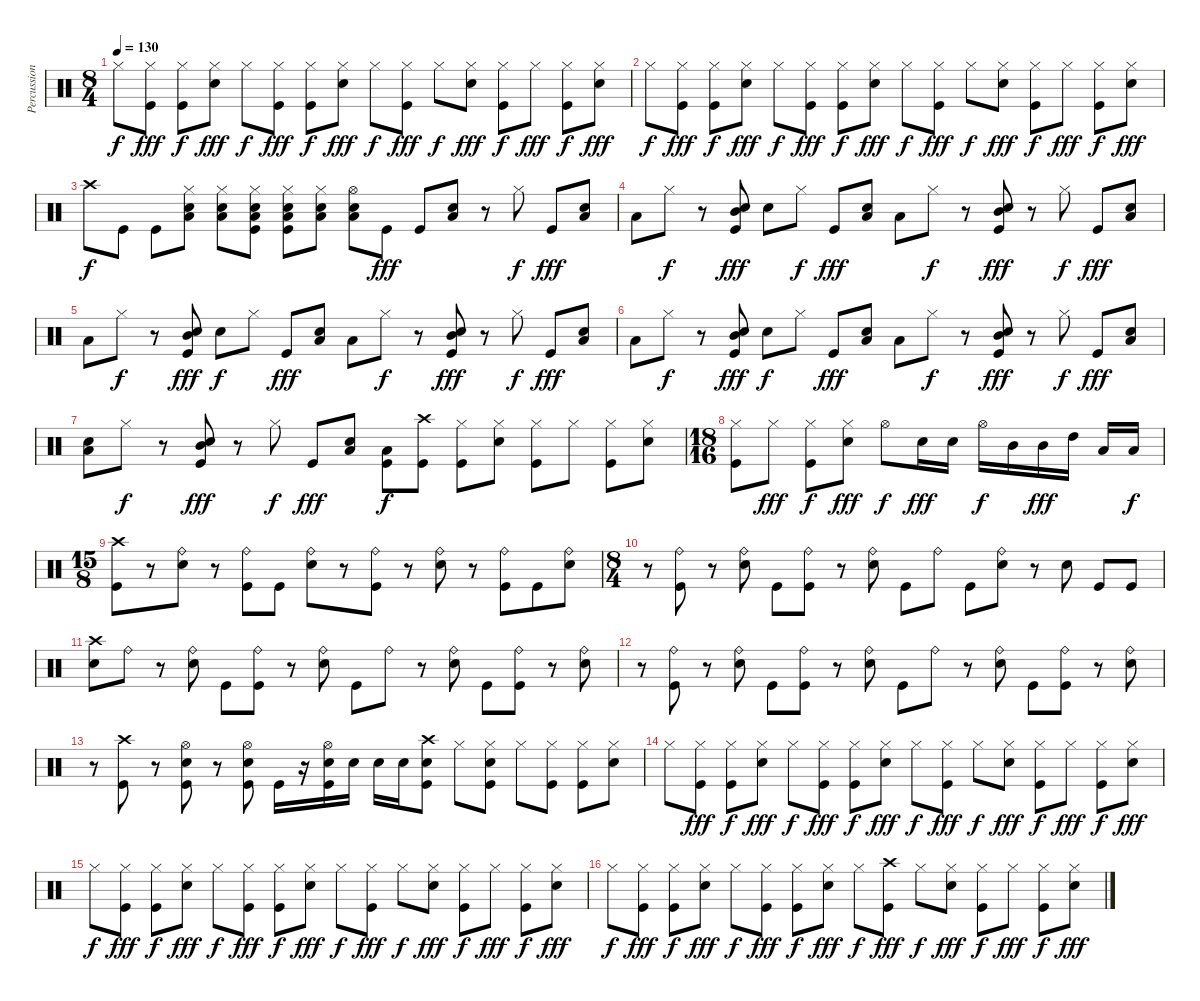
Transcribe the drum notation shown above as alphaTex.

\track ("Percussion" "Percussion") {instrument percussion}
\staff {score}
\articulation defaults
\ts (8 4)
\tempo 130
\clef neutral
\ks c "Hi-Hat (closed)".8{dy f}
("Hi-Hat (closed)" "Kick (hit)").8{dy fff} ("Hi-Hat (closed)" "Kick (hit)").8{dy f} ("Hi-Hat (closed)" "Electric Snare (hit)").8{dy fff} "Hi-Hat (closed)".8{dy f} ("Hi-Hat (closed)" "Kick (hit)").8{dy fff} ("Hi-Hat (closed)" "Kick (hit)").8{dy f} ("Hi-Hat (closed)" "Electric Snare (hit)").8{dy fff} "Hi-Hat (closed)".8{dy f} ("Hi-Hat (closed)" "Kick (hit)").8{dy fff} "Hi-Hat (closed)".8{dy f} ("Hi-Hat (closed)" "Electric Snare (hit)").8{dy fff} ("Hi-Hat (closed)" "Kick (hit)").8{dy f} "Hi-Hat (closed)".8{dy fff} ("Hi-Hat (closed)" "Kick (hit)").8{dy f} ("Hi-Hat (closed)" "Electric Snare (hit)").8{dy fff} |
"Hi-Hat (closed)".8{dy f} ("Hi-Hat (closed)" "Kick (hit)").8{dy fff} ("Hi-Hat (closed)" "Kick (hit)").8{dy f} ("Hi-Hat (closed)" "Electric Snare (hit)").8{dy fff} "Hi-Hat (closed)".8{dy f} ("Hi-Hat (closed)" "Kick (hit)").8{dy fff} ("Hi-Hat (closed)" "Kick (hit)").8{dy f} ("Hi-Hat (closed)" "Electric Snare (hit)").8{dy fff} "Hi-Hat (closed)".8{dy f} ("Hi-Hat (closed)" "Kick (hit)").8{dy fff} "Hi-Hat (closed)".8{dy f} ("Hi-Hat (closed)" "Electric Snare (hit)").8{dy fff} ("Hi-Hat (closed)" "Kick (hit)").8{dy f} "Hi-Hat (closed)".8{dy fff} ("Hi-Hat (closed)" "Kick (hit)").8{dy f} ("Hi-Hat (closed)" "Electric Snare (hit)").8{dy fff} |
"Crash high (hit)".8{dy f} "Kick (hit)".8 "Kick (hit)".8 ("Hi-Hat (closed)" "Low Floor Tom (hit)" "Electric Snare (hit)").8 ("Hi-Hat (closed)" "Low Floor Tom (hit)" "Electric Snare (hit)").8 ("Hi-Hat (closed)" "Low Floor Tom (hit)" "Electric Snare (hit)" "Kick (hit)").8 ("Hi-Hat (closed)" "Low Floor Tom (hit)" "Electric Snare (hit)" "Kick (hit)").8 ("Hi-Hat (closed)" "Low Floor Tom (hit)" "Electric Snare (hit)").8 ("Hi-Hat (open)" "Low Floor Tom (hit)" "Electric Snare (hit)").8 "Kick (hit)".8{dy fff} "Kick (hit)".8 ("Hand Clap (hit)" "Low Floor Tom (hit)").8 r.8 "Hi-Hat (closed)".8{dy f} "Kick (hit)".8{dy fff} ("Hand Clap (hit)" "Low Floor Tom (hit)").8 |
"Low Tom (hit)".8 "Hi-Hat (closed)".8{dy f} r.8 ("Mid Tom (hit)" "Hand Clap (hit)" "Kick (hit)").8{dy fff} "Hand Clap (hit)".8 "Hi-Hat (closed)".8{dy f} "Kick (hit)".8{dy fff} ("Hand Clap (hit)" "Low Floor Tom (hit)").8 "Low Tom (hit)".8 "Hi-Hat (closed)".8{dy f} r.8 ("Mid Tom (hit)" "Hand Clap (hit)" "Kick (hit)").8{dy fff} r.8 "Hi-Hat (closed)".8{dy f} "Kick (hit)".8{dy fff} ("Hand Clap (hit)" "Low Floor Tom (hit)").8 |
"Low Tom (hit)".8 "Hi-Hat (closed)".8{dy f} r.8 ("Mid Tom (hit)" "Hand Clap (hit)" "Kick (hit)").8{dy fff} "Hand Clap (hit)".8{dy f} "Hi-Hat (closed)".8 "Kick (hit)".8{dy fff} ("Hand Clap (hit)" "Low Floor Tom (hit)").8 "Low Tom (hit)".8 "Hi-Hat (closed)".8{dy f} r.8 ("Mid Tom (hit)" "Hand Clap (hit)" "Kick (hit)").8{dy fff} r.8 "Hi-Hat (closed)".8{dy f} "Kick (hit)".8{dy fff} ("Hand Clap (hit)" "Low Floor Tom (hit)").8 |
"Low Tom (hit)".8 "Hi-Hat (closed)".8{dy f} r.8 ("Mid Tom (hit)" "Hand Clap (hit)" "Kick (hit)").8{dy fff} "Hand Clap (hit)".8{dy f} "Hi-Hat (closed)".8 "Kick (hit)".8{dy fff} ("Hand Clap (hit)" "Low Floor Tom (hit)").8 "Low Tom (hit)".8 "Hi-Hat (closed)".8{dy f} r.8 ("Mid Tom (hit)" "Hand Clap (hit)" "Kick (hit)").8{dy fff} r.8 "Hi-Hat (closed)".8{dy f} "Kick (hit)".8{dy fff} ("Hand Clap (hit)" "Low Floor Tom (hit)").8 |
("Hand Clap (hit)" "Low Tom (hit)").8 "Hi-Hat (closed)".8{dy f} r.8 ("Mid Tom (hit)" "Hand Clap (hit)" "Kick (hit)").8{dy fff} r.8 "Hi-Hat (closed)".8{dy f} "Kick (hit)".8{dy fff} ("Hand Clap (hit)" "Low Floor Tom (hit)").8 ("Low Tom (hit)" "Kick (hit)").8{dy f} ("Crash high (hit)" "Kick (hit)").8 ("Hi-Hat (closed)" "Kick (hit)").8 ("Hi-Hat (closed)" "Electric Snare (hit)").8 ("Hi-Hat (closed)" "Kick (hit)").8 "Hi-Hat (closed)".8 ("Hi-Hat (closed)" "Kick (hit)").8 ("Hi-Hat (closed)" "Electric Snare (hit)").8 |
\ts (18 16)
("Hi-Hat (closed)" "Kick (hit)").8 "Hi-Hat (closed)".8{dy fff} ("Hi-Hat (closed)" "Kick (hit)").8{dy f} ("Hi-Hat (closed)" "Electric Snare (hit)").8{dy fff} "Hi-Hat (open)".8{dy f} "Electric Snare (hit)".16{dy fff} "Electric Snare (hit)".16 "Hi-Hat (open)".16{dy f} "Mid Tom (hit)".16 "Mid Tom (hit)".16{dy fff} "High Tom (hit)".16 "Low Floor Tom (hit)".16 "Low Tom (hit)".16{dy f} |
\ts (15 8)
("Crash high (hit)" "Kick (hit)").8 r.8 ("Ride (bell)" "Electric Snare (hit)").8 r.8 ("Ride (bell)" "Kick (hit)").8 "Kick (hit)".8 ("Ride (bell)" "Electric Snare (hit)").8 r.8 ("Ride (bell)" "Kick (hit)").8 r.8 ("Ride (bell)" "Electric Snare (hit)").8 r.8 ("Ride (bell)" "Kick (hit)").8 "Kick (hit)".8 ("Ride (bell)" "Electric Snare (hit)").8 |
\ts (8 4)
r.8 ("Ride (bell)" "Kick (hit)").8 r.8 ("Ride (bell)" "Electric Snare (hit)").8 "Kick (hit)".8 ("Ride (bell)" "Kick (hit)").8 r.8 ("Ride (bell)" "Electric Snare (hit)").8 "Kick (hit)".8 "Ride (bell)".8 "Kick (hit)".8 ("Ride (bell)" "Electric Snare (hit)").8 r.8 "Electric Snare (hit)".8 "Kick (hit)".8 "Kick (hit)".8 |
("Crash high (hit)" "Electric Snare (hit)").8 "Ride (bell)".8 r.8 ("Ride (bell)" "Electric Snare (hit)").8 "Kick (hit)".8 ("Ride (bell)" "Kick (hit)").8 r.8 ("Ride (bell)" "Electric Snare (hit)").8 "Kick (hit)".8 "Ride (bell)".8 r.8 ("Ride (bell)" "Electric Snare (hit)").8 "Kick (hit)".8 ("Ride (bell)" "Kick (hit)").8 r.8 ("Ride (bell)" "Electric Snare (hit)").8 |
r.8 ("Ride (bell)" "Kick (hit)").8 r.8 ("Ride (bell)" "Electric Snare (hit)").8 "Kick (hit)".8 ("Ride (bell)" "Kick (hit)").8 r.8 ("Ride (bell)" "Electric Snare (hit)").8 "Kick (hit)".8 "Ride (bell)".8 r.8 ("Ride (bell)" "Electric Snare (hit)").8 "Kick (hit)".8 ("Ride (bell)" "Kick (hit)").8 r.8 ("Ride (bell)" "Electric Snare (hit)").8 |
r.8 ("Crash high (hit)" "Kick (hit)").8 r.8 ("Hi-Hat (open)" "Electric Snare (hit)" "Kick (hit)").8 r.8 ("Hi-Hat (open)" "Electric Snare (hit)" "Kick (hit)").8 "Kick (hit)".16 r.16 ("Hi-Hat (open)" "Electric Snare (hit)" "Kick (hit)").16 "Electric Snare (hit)".16 "Electric Snare (hit)".16 "Electric Snare (hit)".16 ("Crash high (hit)" "Electric Snare (hit)" "Kick (hit)").8 "Hi-Hat (closed)".8 ("Hi-Hat (closed)" "Electric Snare (hit)" "Kick (hit)").8 "Hi-Hat (closed)".8 ("Hi-Hat (closed)" "Kick (hit)").8 ("Hi-Hat (closed)" "Kick (hit)").8 ("Hi-Hat (closed)" "Electric Snare (hit)").8 |
"Hi-Hat (closed)".8 ("Hi-Hat (closed)" "Kick (hit)").8{dy fff} ("Hi-Hat (closed)" "Kick (hit)").8{dy f} ("Hi-Hat (closed)" "Electric Snare (hit)").8{dy fff} "Hi-Hat (closed)".8{dy f} ("Hi-Hat (closed)" "Kick (hit)").8{dy fff} ("Hi-Hat (closed)" "Kick (hit)").8{dy f} ("Hi-Hat (closed)" "Electric Snare (hit)").8{dy fff} "Hi-Hat (closed)".8{dy f} ("Hi-Hat (closed)" "Kick (hit)").8{dy fff} "Hi-Hat (closed)".8{dy f} ("Hi-Hat (closed)" "Electric Snare (hit)").8{dy fff} ("Hi-Hat (closed)" "Kick (hit)").8{dy f} "Hi-Hat (closed)".8{dy fff} ("Hi-Hat (closed)" "Kick (hit)").8{dy f} ("Hi-Hat (closed)" "Electric Snare (hit)").8{dy fff} |
"Hi-Hat (closed)".8{dy f} ("Hi-Hat (closed)" "Kick (hit)").8{dy fff} ("Hi-Hat (closed)" "Kick (hit)").8{dy f} ("Hi-Hat (closed)" "Electric Snare (hit)").8{dy fff} "Hi-Hat (closed)".8{dy f} ("Hi-Hat (closed)" "Kick (hit)").8{dy fff} ("Hi-Hat (closed)" "Kick (hit)").8{dy f} ("Hi-Hat (closed)" "Electric Snare (hit)").8{dy fff} "Hi-Hat (closed)".8{dy f} ("Hi-Hat (closed)" "Kick (hit)").8{dy fff} "Hi-Hat (closed)".8{dy f} ("Hi-Hat (closed)" "Electric Snare (hit)").8{dy fff} ("Hi-Hat (closed)" "Kick (hit)").8{dy f} "Hi-Hat (closed)".8{dy fff} ("Hi-Hat (closed)" "Kick (hit)").8{dy f} ("Hi-Hat (closed)" "Electric Snare (hit)").8{dy fff} |
"Hi-Hat (closed)".8{dy f} ("Hi-Hat (closed)" "Kick (hit)").8{dy fff} ("Hi-Hat (closed)" "Kick (hit)").8{dy f} ("Hi-Hat (closed)" "Electric Snare (hit)").8{dy fff} "Hi-Hat (closed)".8{dy f} ("Hi-Hat (closed)" "Kick (hit)").8{dy fff} ("Hi-Hat (closed)" "Kick (hit)").8{dy f} ("Hi-Hat (closed)" "Electric Snare (hit)").8{dy fff} "Hi-Hat (closed)".8{dy f} ("Crash high (hit)" "Kick (hit)").8{dy fff} "Hi-Hat (closed)".8{dy f} ("Hi-Hat (closed)" "Electric Snare (hit)").8{dy fff} ("Hi-Hat (closed)" "Kick (hit)").8{dy f} "Hi-Hat (closed)".8{dy fff} ("Hi-Hat (closed)" "Kick (hit)").8{dy f} ("Hi-Hat (closed)" "Electric Snare (hit)").8{dy fff}
